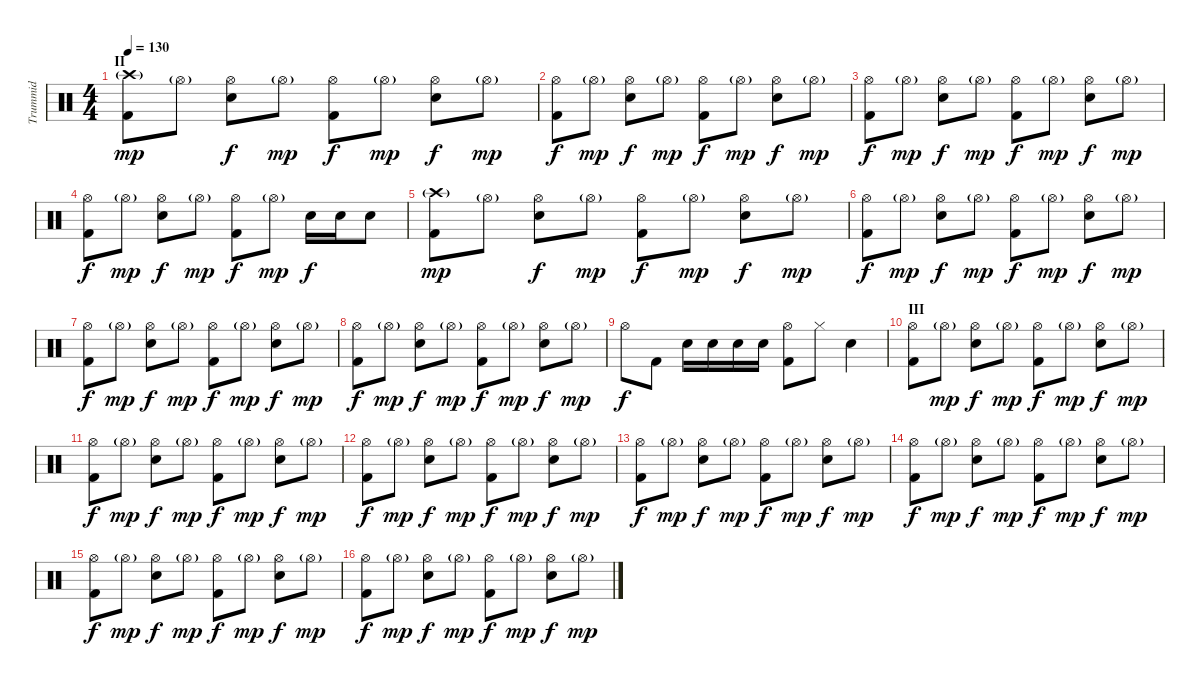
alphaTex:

\track ("Trummid" "Trummid") {instrument percussion}
\staff {score}
\articulation defaults
\ts (4 4)
\section ("" "II")
\tempo 130
\clef neutral
\ks c
("Crash high (hit)"{g} "Kick (hit) 2").8{dy mp} "Hi-Hat (open)"{g}.8 ("Hi-Hat (open)" "Snare (hit) 2").8{dy f} "Hi-Hat (open)"{g}.8{dy mp} ("Hi-Hat (open)" "Kick (hit) 2").8{dy f} "Hi-Hat (open)"{g}.8{dy mp} ("Hi-Hat (open)" "Snare (hit) 2").8{dy f} "Hi-Hat (open)"{g}.8{dy mp} |
("Hi-Hat (open)" "Kick (hit) 2").8{dy f} "Hi-Hat (open)"{g}.8{dy mp} ("Hi-Hat (open)" "Snare (hit) 2").8{dy f} "Hi-Hat (open)"{g}.8{dy mp} ("Hi-Hat (open)" "Kick (hit) 2").8{dy f} "Hi-Hat (open)"{g}.8{dy mp} ("Hi-Hat (open)" "Snare (hit) 2").8{dy f} "Hi-Hat (open)"{g}.8{dy mp} |
("Hi-Hat (open)" "Kick (hit) 2").8{dy f} "Hi-Hat (open)"{g}.8{dy mp} ("Hi-Hat (open)" "Snare (hit) 2").8{dy f} "Hi-Hat (open)"{g}.8{dy mp} ("Hi-Hat (open)" "Kick (hit) 2").8{dy f} "Hi-Hat (open)"{g}.8{dy mp} ("Hi-Hat (open)" "Snare (hit) 2").8{dy f} "Hi-Hat (open)"{g}.8{dy mp} |
("Hi-Hat (open)" "Kick (hit) 2").8{dy f} "Hi-Hat (open)"{g}.8{dy mp} ("Hi-Hat (open)" "Snare (hit) 2").8{dy f} "Hi-Hat (open)"{g}.8{dy mp} ("Hi-Hat (open)" "Kick (hit) 2").8{dy f} "Hi-Hat (open)"{g}.8{dy mp} "Snare (hit) 2".16{dy f} "Snare (hit) 2".16 "Snare (hit) 2".8 |
("Crash high (hit)"{g} "Kick (hit) 2").8{dy mp} "Hi-Hat (open)"{g}.8 ("Hi-Hat (open)" "Snare (hit) 2").8{dy f} "Hi-Hat (open)"{g}.8{dy mp} ("Hi-Hat (open)" "Kick (hit) 2").8{dy f} "Hi-Hat (open)"{g}.8{dy mp} ("Hi-Hat (open)" "Snare (hit) 2").8{dy f} "Hi-Hat (open)"{g}.8{dy mp} |
("Hi-Hat (open)" "Kick (hit) 2").8{dy f} "Hi-Hat (open)"{g}.8{dy mp} ("Hi-Hat (open)" "Snare (hit) 2").8{dy f} "Hi-Hat (open)"{g}.8{dy mp} ("Hi-Hat (open)" "Kick (hit) 2").8{dy f} "Hi-Hat (open)"{g}.8{dy mp} ("Hi-Hat (open)" "Snare (hit) 2").8{dy f} "Hi-Hat (open)"{g}.8{dy mp} |
("Hi-Hat (open)" "Kick (hit) 2").8{dy f} "Hi-Hat (open)"{g}.8{dy mp} ("Hi-Hat (open)" "Snare (hit) 2").8{dy f} "Hi-Hat (open)"{g}.8{dy mp} ("Hi-Hat (open)" "Kick (hit) 2").8{dy f} "Hi-Hat (open)"{g}.8{dy mp} ("Hi-Hat (open)" "Snare (hit) 2").8{dy f} "Hi-Hat (open)"{g}.8{dy mp} |
("Hi-Hat (open)" "Kick (hit) 2").8{dy f} "Hi-Hat (open)"{g}.8{dy mp} ("Hi-Hat (open)" "Snare (hit) 2").8{dy f} "Hi-Hat (open)"{g}.8{dy mp} ("Hi-Hat (open)" "Kick (hit) 2").8{dy f} "Hi-Hat (open)"{g}.8{dy mp} ("Hi-Hat (open)" "Snare (hit) 2").8{dy f} "Hi-Hat (open)"{g}.8{dy mp} |
"Hi-Hat (open)".8{dy f} "Kick (hit) 2".8 "Snare (hit) 2".16 "Snare (hit) 2".16 "Snare (hit) 2".16 "Snare (hit) 2".16 ("Hi-Hat (open)" "Kick (hit) 2").8 "Hi-Hat (closed)".8 "Snare (hit) 2".4 |
\section ("" "III")
("Hi-Hat (open)" "Kick (hit) 2").8 "Hi-Hat (open)"{g}.8{dy mp} ("Hi-Hat (open)" "Snare (hit) 2").8{dy f} "Hi-Hat (open)"{g}.8{dy mp} ("Hi-Hat (open)" "Kick (hit) 2").8{dy f} "Hi-Hat (open)"{g}.8{dy mp} ("Hi-Hat (open)" "Snare (hit) 2").8{dy f} "Hi-Hat (open)"{g}.8{dy mp} |
("Hi-Hat (open)" "Kick (hit) 2").8{dy f} "Hi-Hat (open)"{g}.8{dy mp} ("Hi-Hat (open)" "Snare (hit) 2").8{dy f} "Hi-Hat (open)"{g}.8{dy mp} ("Hi-Hat (open)" "Kick (hit) 2").8{dy f} "Hi-Hat (open)"{g}.8{dy mp} ("Hi-Hat (open)" "Snare (hit) 2").8{dy f} "Hi-Hat (open)"{g}.8{dy mp} |
("Hi-Hat (open)" "Kick (hit) 2").8{dy f} "Hi-Hat (open)"{g}.8{dy mp} ("Hi-Hat (open)" "Snare (hit) 2").8{dy f} "Hi-Hat (open)"{g}.8{dy mp} ("Hi-Hat (open)" "Kick (hit) 2").8{dy f} "Hi-Hat (open)"{g}.8{dy mp} ("Hi-Hat (open)" "Snare (hit) 2").8{dy f} "Hi-Hat (open)"{g}.8{dy mp} |
("Hi-Hat (open)" "Kick (hit) 2").8{dy f} "Hi-Hat (open)"{g}.8{dy mp} ("Hi-Hat (open)" "Snare (hit) 2").8{dy f} "Hi-Hat (open)"{g}.8{dy mp} ("Hi-Hat (open)" "Kick (hit) 2").8{dy f} "Hi-Hat (open)"{g}.8{dy mp} ("Hi-Hat (open)" "Snare (hit) 2").8{dy f} "Hi-Hat (open)"{g}.8{dy mp} |
("Hi-Hat (open)" "Kick (hit) 2").8{dy f} "Hi-Hat (open)"{g}.8{dy mp} ("Hi-Hat (open)" "Snare (hit) 2").8{dy f} "Hi-Hat (open)"{g}.8{dy mp} ("Hi-Hat (open)" "Kick (hit) 2").8{dy f} "Hi-Hat (open)"{g}.8{dy mp} ("Hi-Hat (open)" "Snare (hit) 2").8{dy f} "Hi-Hat (open)"{g}.8{dy mp} |
("Hi-Hat (open)" "Kick (hit) 2").8{dy f} "Hi-Hat (open)"{g}.8{dy mp} ("Hi-Hat (open)" "Snare (hit) 2").8{dy f} "Hi-Hat (open)"{g}.8{dy mp} ("Hi-Hat (open)" "Kick (hit) 2").8{dy f} "Hi-Hat (open)"{g}.8{dy mp} ("Hi-Hat (open)" "Snare (hit) 2").8{dy f} "Hi-Hat (open)"{g}.8{dy mp} |
("Hi-Hat (open)" "Kick (hit) 2").8{dy f} "Hi-Hat (open)"{g}.8{dy mp} ("Hi-Hat (open)" "Snare (hit) 2").8{dy f} "Hi-Hat (open)"{g}.8{dy mp} ("Hi-Hat (open)" "Kick (hit) 2").8{dy f} "Hi-Hat (open)"{g}.8{dy mp} ("Hi-Hat (open)" "Snare (hit) 2").8{dy f} "Hi-Hat (open)"{g}.8{dy mp}
